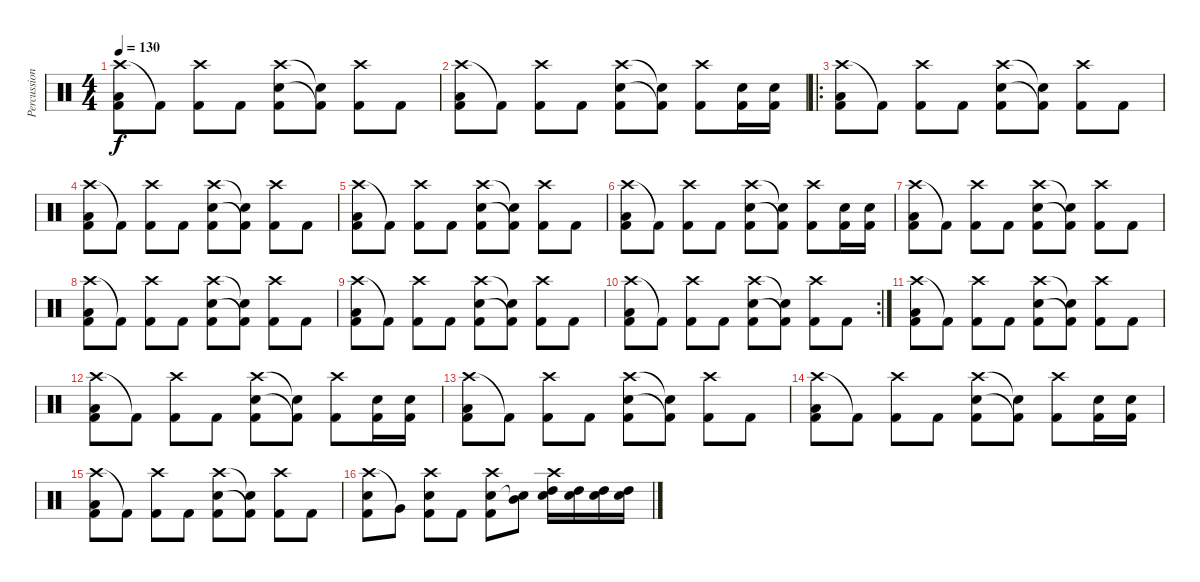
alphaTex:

\track ("Percussions" "Percussion") {instrument percussion}
\staff {score}
\articulation defaults
\ts (4 4)
\tempo 130
\clef neutral
\ks c
("Crash high (hit)" "Low Tom (hit)" "Kick (hit) 2").8{dy f} "Kick (hit) 2"{t}.8 ("Crash high (hit)" "Kick (hit) 2").8 "Kick (hit) 2".8 ("Crash high (hit)" "Snare (hit) 2" "Kick (hit) 2").8 ("Snare (hit)"{t} "Kick (hit) 2"{t}).8 ("Crash high (hit)" "Kick (hit) 2").8 "Kick (hit) 2".8 |
("Crash high (hit)" "Low Tom (hit)" "Kick (hit) 2").8 "Kick (hit) 2"{t}.8 ("Crash high (hit)" "Kick (hit) 2").8 "Kick (hit) 2".8 ("Crash high (hit)" "Snare (hit) 2" "Kick (hit) 2").8 ("Snare (hit)"{t} "Kick (hit) 2"{t}).8 ("Crash high (hit)" "Kick (hit) 2").8 ("Snare (hit) 2" "Kick (hit) 2").16 ("Snare (hit) 2" "Kick (hit) 2").16 |
\ro
("Crash high (hit)" "Low Tom (hit)" "Kick (hit) 2").8 "Kick (hit) 2"{t}.8 ("Crash high (hit)" "Kick (hit) 2").8 "Kick (hit) 2".8 ("Crash high (hit)" "Snare (hit) 2" "Kick (hit) 2").8 ("Snare (hit)"{t} "Kick (hit) 2"{t}).8 ("Crash high (hit)" "Kick (hit) 2").8 "Kick (hit) 2".8 |
("Crash high (hit)" "Low Tom (hit)" "Kick (hit) 2").8 "Kick (hit) 2"{t}.8 ("Crash high (hit)" "Kick (hit) 2").8 "Kick (hit) 2".8 ("Crash high (hit)" "Snare (hit) 2" "Kick (hit) 2").8 ("Snare (hit)"{t} "Kick (hit) 2"{t}).8 ("Crash high (hit)" "Kick (hit) 2").8 "Kick (hit) 2".8 |
("Crash high (hit)" "Low Tom (hit)" "Kick (hit) 2").8 "Kick (hit) 2"{t}.8 ("Crash high (hit)" "Kick (hit) 2").8 "Kick (hit) 2".8 ("Crash high (hit)" "Snare (hit) 2" "Kick (hit) 2").8 ("Snare (hit)"{t} "Kick (hit) 2"{t}).8 ("Crash high (hit)" "Kick (hit) 2").8 "Kick (hit) 2".8 |
("Crash high (hit)" "Low Tom (hit)" "Kick (hit) 2").8 "Kick (hit) 2"{t}.8 ("Crash high (hit)" "Kick (hit) 2").8 "Kick (hit) 2".8 ("Crash high (hit)" "Snare (hit) 2" "Kick (hit) 2").8 ("Snare (hit)"{t} "Kick (hit) 2"{t}).8 ("Crash high (hit)" "Kick (hit) 2").8 ("Snare (hit) 2" "Kick (hit) 2").16 ("Snare (hit) 2" "Kick (hit) 2").16 |
("Crash high (hit)" "Low Tom (hit)" "Kick (hit) 2").8 "Kick (hit) 2"{t}.8 ("Crash high (hit)" "Kick (hit) 2").8 "Kick (hit) 2".8 ("Crash high (hit)" "Snare (hit) 2" "Kick (hit) 2").8 ("Snare (hit)"{t} "Kick (hit) 2"{t}).8 ("Crash high (hit)" "Kick (hit) 2").8 "Kick (hit) 2".8 |
("Crash high (hit)" "Low Tom (hit)" "Kick (hit) 2").8 "Kick (hit) 2"{t}.8 ("Crash high (hit)" "Kick (hit) 2").8 "Kick (hit) 2".8 ("Crash high (hit)" "Snare (hit) 2" "Kick (hit) 2").8 ("Snare (hit)"{t} "Kick (hit) 2"{t}).8 ("Crash high (hit)" "Kick (hit) 2").8 "Kick (hit) 2".8 |
("Crash high (hit)" "Low Tom (hit)" "Kick (hit) 2").8 "Kick (hit) 2"{t}.8 ("Crash high (hit)" "Kick (hit) 2").8 "Kick (hit) 2".8 ("Crash high (hit)" "Snare (hit) 2" "Kick (hit) 2").8 ("Snare (hit)"{t} "Kick (hit) 2"{t}).8 ("Crash high (hit)" "Kick (hit) 2").8 "Kick (hit) 2".8 |
\rc 2
("Crash high (hit)" "Low Tom (hit)" "Kick (hit) 2").8 "Kick (hit) 2"{t}.8 ("Crash high (hit)" "Kick (hit) 2").8 "Kick (hit) 2".8 ("Crash high (hit)" "Snare (hit) 2" "Kick (hit) 2").8 ("Snare (hit)"{t} "Kick (hit) 2"{t}).8 ("Crash high (hit)" "Kick (hit) 2").8 "Kick (hit) 2".8 |
("Crash high (hit)" "Low Tom (hit)" "Kick (hit) 2").8 "Kick (hit) 2"{t}.8 ("Crash high (hit)" "Kick (hit) 2").8 "Kick (hit) 2".8 ("Crash high (hit)" "Snare (hit) 2" "Kick (hit) 2").8 ("Snare (hit)"{t} "Kick (hit) 2"{t}).8 ("Crash high (hit)" "Kick (hit) 2").8 "Kick (hit) 2".8 |
("Crash high (hit)" "Low Tom (hit)" "Kick (hit) 2").8 "Kick (hit) 2"{t}.8 ("Crash high (hit)" "Kick (hit) 2").8 "Kick (hit) 2".8 ("Crash high (hit)" "Snare (hit) 2" "Kick (hit) 2").8 ("Snare (hit)"{t} "Kick (hit) 2"{t}).8 ("Crash high (hit)" "Kick (hit) 2").8 ("Snare (hit) 2" "Kick (hit) 2").16 ("Snare (hit) 2" "Kick (hit) 2").16 |
("Crash high (hit)" "Low Tom (hit)" "Kick (hit) 2").8 "Kick (hit) 2"{t}.8 ("Crash high (hit)" "Kick (hit) 2").8 "Kick (hit) 2".8 ("Crash high (hit)" "Snare (hit) 2" "Kick (hit) 2").8 ("Snare (hit)"{t} "Kick (hit) 2"{t}).8 ("Crash high (hit)" "Kick (hit) 2").8 "Kick (hit) 2".8 |
("Crash high (hit)" "Low Tom (hit)" "Kick (hit) 2").8 "Kick (hit) 2"{t}.8 ("Crash high (hit)" "Kick (hit) 2").8 "Kick (hit) 2".8 ("Crash high (hit)" "Snare (hit) 2" "Kick (hit) 2").8 ("Snare (hit)"{t} "Kick (hit) 2"{t}).8 ("Crash high (hit)" "Kick (hit) 2").8 ("Snare (hit) 2" "Kick (hit) 2").16 ("Snare (hit) 2" "Kick (hit) 2").16 |
("Crash high (hit)" "Low Tom (hit)" "Kick (hit) 2").8 "Kick (hit) 2"{t}.8 ("Crash high (hit)" "Kick (hit) 2").8 "Kick (hit) 2".8 ("Crash high (hit)" "Snare (hit) 2" "Kick (hit) 2").8 ("Snare (hit)"{t} "Kick (hit) 2"{t}).8 ("Crash high (hit)" "Kick (hit) 2").8 "Kick (hit) 2".8 |
("Crash high (hit)" "Snare (hit) 2" "Kick (hit) 2").8 "Very Low Tom (hit)"{t}.8 ("Crash high (hit)" "Snare (hit) 2" "Kick (hit) 2").8 "Kick (hit) 2".8 ("Crash high (hit)" "Snare (hit) 2" "Kick (hit) 2").8 ("Snare (hit) 2" "Mid Tom (hit)"{t}).8 ("Crash high (hit)" "Snare (hit) 2" "High Tom (hit)").16 ("Snare (hit) 2" "High Tom (hit)").16 ("Snare (hit) 2" "High Tom (hit)").16 ("Snare (hit) 2" "High Tom (hit)").16
